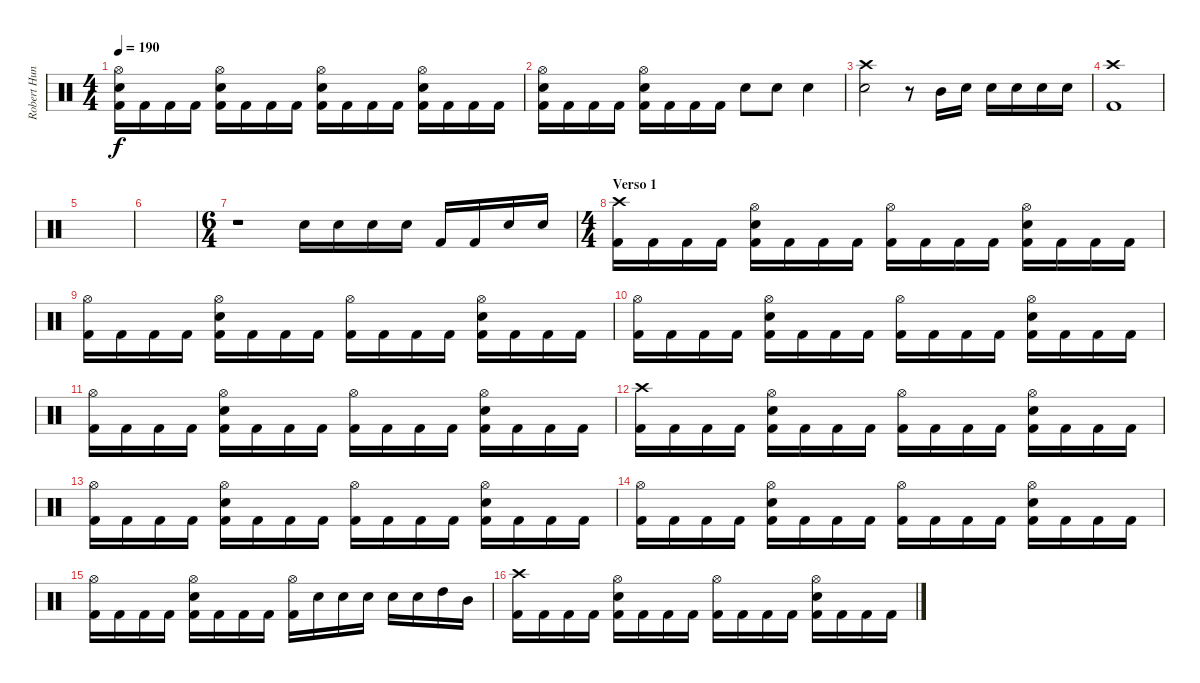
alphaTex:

\track ("Robert Hunecke" "Robert Hun") {instrument percussion}
\staff {score}
\articulation defaults
\ts (4 4)
\tempo 190
\clef neutral
\ks c
("Kick (hit) 2" "Electric Snare (hit)" "Hi-Hat (open)").16{dy f} "Kick (hit) 2".16 "Kick (hit) 2".16 "Kick (hit) 2".16 ("Kick (hit) 2" "Electric Snare (hit)" "Hi-Hat (open)").16 "Kick (hit) 2".16 "Kick (hit) 2".16 "Kick (hit) 2".16 ("Kick (hit) 2" "Electric Snare (hit)" "Hi-Hat (open)").16 "Kick (hit) 2".16 "Kick (hit) 2".16 "Kick (hit) 2".16 ("Kick (hit) 2" "Electric Snare (hit)" "Hi-Hat (open)").16 "Kick (hit) 2".16 "Kick (hit) 2".16 "Kick (hit) 2".16 |
("Kick (hit) 2" "Electric Snare (hit)" "Hi-Hat (open)").16 "Kick (hit) 2".16 "Kick (hit) 2".16 "Kick (hit) 2".16 ("Kick (hit) 2" "Electric Snare (hit)" "Hi-Hat (open)").16 "Kick (hit) 2".16 "Kick (hit) 2".16 "Kick (hit) 2".16 "Electric Snare (hit)".8 "Electric Snare (hit)".8 "Electric Snare (hit)".4 |
("Electric Snare (hit)" "Crash high (hit)").2 r.8 "Mid Tom (hit)".16 "Electric Snare (hit)".16 "Electric Snare (hit)".16 "Electric Snare (hit)".16 "Electric Snare (hit)".16 "Electric Snare (hit)".16 |
\section ("" "")
("Kick (hit) 2" "Crash high (hit)").1 |
|
|
\ts (6 4)
r.1 "Electric Snare (hit)".16 "Electric Snare (hit)".16 "Electric Snare (hit)".16 "Electric Snare (hit)".16 "Kick (hit) 2".16 "Kick (hit) 2".16 "Electric Snare (hit)".16 "Electric Snare (hit)".16 |
\ts (4 4)
\section ("" "Verso 1")
("Kick (hit) 2" "Crash high (hit)").16 "Kick (hit) 2".16 "Kick (hit) 2".16 "Kick (hit) 2".16 ("Kick (hit) 2" "Electric Snare (hit)" "Hi-Hat (open)").16 "Kick (hit) 2".16 "Kick (hit) 2".16 "Kick (hit) 2".16 ("Kick (hit) 2" "Hi-Hat (open)").16 "Kick (hit) 2".16 "Kick (hit) 2".16 "Kick (hit) 2".16 ("Kick (hit) 2" "Electric Snare (hit)" "Hi-Hat (open)").16 "Kick (hit) 2".16 "Kick (hit) 2".16 "Kick (hit) 2".16 |
("Kick (hit) 2" "Hi-Hat (open)").16 "Kick (hit) 2".16 "Kick (hit) 2".16 "Kick (hit) 2".16 ("Kick (hit) 2" "Electric Snare (hit)" "Hi-Hat (open)").16 "Kick (hit) 2".16 "Kick (hit) 2".16 "Kick (hit) 2".16 ("Kick (hit) 2" "Hi-Hat (open)").16 "Kick (hit) 2".16 "Kick (hit) 2".16 "Kick (hit) 2".16 ("Kick (hit) 2" "Electric Snare (hit)" "Hi-Hat (open)").16 "Kick (hit) 2".16 "Kick (hit) 2".16 "Kick (hit) 2".16 |
("Kick (hit) 2" "Hi-Hat (open)").16 "Kick (hit) 2".16 "Kick (hit) 2".16 "Kick (hit) 2".16 ("Kick (hit) 2" "Electric Snare (hit)" "Hi-Hat (open)").16 "Kick (hit) 2".16 "Kick (hit) 2".16 "Kick (hit) 2".16 ("Kick (hit) 2" "Hi-Hat (open)").16 "Kick (hit) 2".16 "Kick (hit) 2".16 "Kick (hit) 2".16 ("Kick (hit) 2" "Electric Snare (hit)" "Hi-Hat (open)").16 "Kick (hit) 2".16 "Kick (hit) 2".16 "Kick (hit) 2".16 |
("Kick (hit) 2" "Hi-Hat (open)").16 "Kick (hit) 2".16 "Kick (hit) 2".16 "Kick (hit) 2".16 ("Kick (hit) 2" "Electric Snare (hit)" "Hi-Hat (open)").16 "Kick (hit) 2".16 "Kick (hit) 2".16 "Kick (hit) 2".16 ("Kick (hit) 2" "Hi-Hat (open)").16 "Kick (hit) 2".16 "Kick (hit) 2".16 "Kick (hit) 2".16 ("Kick (hit) 2" "Electric Snare (hit)" "Hi-Hat (open)").16 "Kick (hit) 2".16 "Kick (hit) 2".16 "Kick (hit) 2".16 |
("Kick (hit) 2" "Crash high (hit)").16 "Kick (hit) 2".16 "Kick (hit) 2".16 "Kick (hit) 2".16 ("Kick (hit) 2" "Electric Snare (hit)" "Hi-Hat (open)").16 "Kick (hit) 2".16 "Kick (hit) 2".16 "Kick (hit) 2".16 ("Kick (hit) 2" "Hi-Hat (open)").16 "Kick (hit) 2".16 "Kick (hit) 2".16 "Kick (hit) 2".16 ("Kick (hit) 2" "Electric Snare (hit)" "Hi-Hat (open)").16 "Kick (hit) 2".16 "Kick (hit) 2".16 "Kick (hit) 2".16 |
("Kick (hit) 2" "Hi-Hat (open)").16 "Kick (hit) 2".16 "Kick (hit) 2".16 "Kick (hit) 2".16 ("Kick (hit) 2" "Electric Snare (hit)" "Hi-Hat (open)").16 "Kick (hit) 2".16 "Kick (hit) 2".16 "Kick (hit) 2".16 ("Kick (hit) 2" "Hi-Hat (open)").16 "Kick (hit) 2".16 "Kick (hit) 2".16 "Kick (hit) 2".16 ("Kick (hit) 2" "Electric Snare (hit)" "Hi-Hat (open)").16 "Kick (hit) 2".16 "Kick (hit) 2".16 "Kick (hit) 2".16 |
("Kick (hit) 2" "Hi-Hat (open)").16 "Kick (hit) 2".16 "Kick (hit) 2".16 "Kick (hit) 2".16 ("Kick (hit) 2" "Electric Snare (hit)" "Hi-Hat (open)").16 "Kick (hit) 2".16 "Kick (hit) 2".16 "Kick (hit) 2".16 ("Kick (hit) 2" "Hi-Hat (open)").16 "Kick (hit) 2".16 "Kick (hit) 2".16 "Kick (hit) 2".16 ("Kick (hit) 2" "Electric Snare (hit)" "Hi-Hat (open)").16 "Kick (hit) 2".16 "Kick (hit) 2".16 "Kick (hit) 2".16 |
("Kick (hit) 2" "Hi-Hat (open)").16 "Kick (hit) 2".16 "Kick (hit) 2".16 "Kick (hit) 2".16 ("Kick (hit) 2" "Electric Snare (hit)" "Hi-Hat (open)").16 "Kick (hit) 2".16 "Kick (hit) 2".16 "Kick (hit) 2".16 ("Kick (hit) 2" "Hi-Hat (open)").16 "Electric Snare (hit)".16 "Electric Snare (hit)".16 "Electric Snare (hit)".16 "Electric Snare (hit)".16 "Electric Snare (hit)".16 "High Tom (hit)".16 "Mid Tom (hit)".16 |
("Kick (hit) 2" "Crash high (hit)").16 "Kick (hit) 2".16 "Kick (hit) 2".16 "Kick (hit) 2".16 ("Kick (hit) 2" "Electric Snare (hit)" "Hi-Hat (open)").16 "Kick (hit) 2".16 "Kick (hit) 2".16 "Kick (hit) 2".16 ("Kick (hit) 2" "Hi-Hat (open)").16 "Kick (hit) 2".16 "Kick (hit) 2".16 "Kick (hit) 2".16 ("Kick (hit) 2" "Electric Snare (hit)" "Hi-Hat (open)").16 "Kick (hit) 2".16 "Kick (hit) 2".16 "Kick (hit) 2".16
